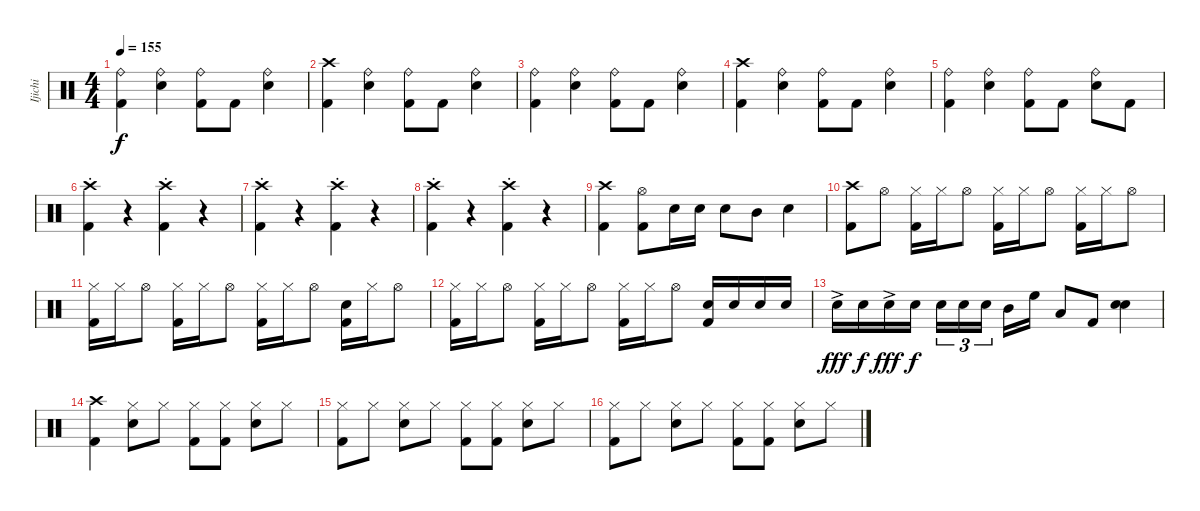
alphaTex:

\track ("Ijichi" "Ijichi") {instrument percussion}
\staff {score}
\articulation defaults
\ts (4 4)
\tempo 155
\clef neutral
\ks c
("Ride (bell)" "Kick (hit) 2").4{dy f} ("Ride (bell)" "Snare (hit) 2").4 ("Ride (bell)" "Kick (hit) 2").8 "Kick (hit) 2".8 ("Ride (bell)" "Snare (hit) 2").4 |
("Crash high (hit)" "Kick (hit) 2").4 ("Ride (bell)" "Snare (hit) 2").4 ("Ride (bell)" "Kick (hit) 2").8 "Kick (hit) 2".8 ("Ride (bell)" "Snare (hit) 2").4 |
("Ride (bell)" "Kick (hit) 2").4 ("Ride (bell)" "Snare (hit) 2").4 ("Ride (bell)" "Kick (hit) 2").8 "Kick (hit) 2".8 ("Ride (bell)" "Snare (hit) 2").4 |
("Crash high (hit)" "Kick (hit) 2").4 ("Ride (bell)" "Snare (hit) 2").4 ("Ride (bell)" "Kick (hit) 2").8 "Kick (hit) 2".8 ("Ride (bell)" "Snare (hit) 2").4 |
("Ride (bell)" "Kick (hit) 2").4 ("Ride (bell)" "Snare (hit) 2").4 ("Ride (bell)" "Kick (hit) 2").8 "Kick (hit) 2".8 ("Ride (bell)" "Snare (hit) 2").8 "Kick (hit) 2".8 |
("Crash high (hit)"{st} "Kick (hit) 2").4 r.4 ("Crash high (hit)"{st} "Kick (hit) 2").4 r.4 |
("Crash high (hit)"{st} "Kick (hit) 2").4 r.4 ("Crash high (hit)"{st} "Kick (hit) 2").4 r.4 |
("Crash high (hit)"{st} "Kick (hit) 2").4 r.4 ("Crash high (hit)"{st} "Kick (hit) 2").4 r.4 |
("Crash high (hit)" "Kick (hit) 2").4 ("Hi-Hat (open)" "Kick (hit) 2").8 "Snare (hit) 2".16 "Snare (hit) 2".16 "Snare (hit) 2".8 "Mid Tom (hit)".8 "Snare (hit) 2".4 |
("Crash high (hit)" "Kick (hit) 2").8 "Hi-Hat (open)".8 ("Hi-Hat (closed)" "Kick (hit) 2").16 "Hi-Hat (closed)".16 "Hi-Hat (open)".8 ("Hi-Hat (closed)" "Kick (hit) 2").16 "Hi-Hat (closed)".16 "Hi-Hat (open)".8 ("Hi-Hat (closed)" "Kick (hit) 2").16 "Hi-Hat (closed)".16 "Hi-Hat (open)".8 |
("Hi-Hat (closed)" "Kick (hit) 2").16 "Hi-Hat (closed)".16 "Hi-Hat (open)".8 ("Hi-Hat (closed)" "Kick (hit) 2").16 "Hi-Hat (closed)".16 "Hi-Hat (open)".8 ("Hi-Hat (closed)" "Kick (hit) 2").16 "Hi-Hat (closed)".16 "Hi-Hat (open)".8 ("Snare (hit) 2" "Kick (hit) 2").16 "Hi-Hat (closed)".16 "Hi-Hat (open)".8 |
("Hi-Hat (closed)" "Kick (hit) 2").16 "Hi-Hat (closed)".16 "Hi-Hat (open)".8 ("Hi-Hat (closed)" "Kick (hit) 2").16 "Hi-Hat (closed)".16 "Hi-Hat (open)".8 ("Hi-Hat (closed)" "Kick (hit) 2").16 "Hi-Hat (closed)".16 "Hi-Hat (open)".8 ("Snare (hit) 2" "Kick (hit) 2").16 "Snare (hit) 2".16 "Snare (hit) 2".16 "Snare (hit) 2".16 |
"Snare (hit) 2"{ac}.16{dy fff} "Snare (hit) 2".16{dy f} "Snare (hit) 2"{ac}.16{dy fff} "Snare (hit) 2".16{dy f} "Snare (hit) 2".16{tu (3 2)} "Snare (hit) 2".16{tu (3 2)} "Snare (hit) 2".16{tu (3 2)} "Mid Tom (hit)".16 "High Floor Tom (hit)".16 "Low Tom (hit)".8 "Kick (hit) 2".8 ("Snare (hit) 2" "Snare (hit) 2").4 |
("Crash high (hit)" "Kick (hit) 2").4 ("Hi-Hat (closed)" "Snare (hit) 2").8 "Hi-Hat (closed)".8 ("Hi-Hat (closed)" "Kick (hit) 2").8 ("Hi-Hat (closed)" "Kick (hit) 2").8 ("Hi-Hat (closed)" "Snare (hit) 2").8 "Hi-Hat (closed)".8 |
("Hi-Hat (closed)" "Kick (hit) 2").8 "Hi-Hat (closed)".8 ("Hi-Hat (closed)" "Snare (hit) 2").8 "Hi-Hat (closed)".8 ("Hi-Hat (closed)" "Kick (hit) 2").8 ("Hi-Hat (closed)" "Kick (hit) 2").8 ("Hi-Hat (closed)" "Snare (hit) 2").8 "Hi-Hat (closed)".8 |
("Hi-Hat (closed)" "Kick (hit) 2").8 "Hi-Hat (closed)".8 ("Hi-Hat (closed)" "Snare (hit) 2").8 "Hi-Hat (closed)".8 ("Hi-Hat (closed)" "Kick (hit) 2").8 ("Hi-Hat (closed)" "Kick (hit) 2").8 ("Hi-Hat (closed)" "Snare (hit) 2").8 "Hi-Hat (closed)".8
